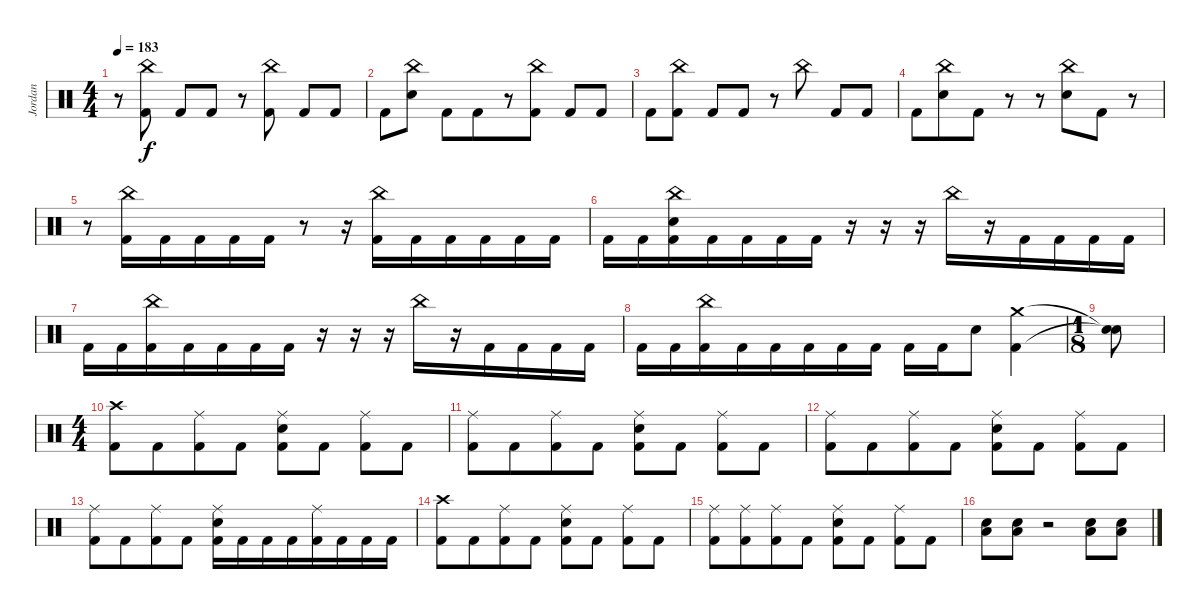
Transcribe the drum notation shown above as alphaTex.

\track ("Jordan" "Jordan") {instrument percussion bank 82}
\staff {score}
\articulation defaults
\ts (4 4)
\tempo 183
\clef neutral
\ks c
r.8{dy f} ("China (hit)" "Kick (hit) 2").8 "Kick (hit) 2".8{beam merge} "Kick (hit) 2".8 r.8{beam merge} ("China (hit)" "Kick (hit) 2").8 "Kick (hit) 2".8{beam merge} "Kick (hit) 2".8 |
"Kick (hit) 2".8 ("China (hit)" "Snare (hit) 2").8 "Kick (hit) 2".8 "Kick (hit) 2".8{beam merge} r.8 ("China (hit)" "Kick (hit) 2").8 "Kick (hit) 2".8{beam merge} "Kick (hit) 2".8 |
"Kick (hit) 2".8{beam merge} ("China (hit)" "Kick (hit) 2").8 "Kick (hit) 2".8{beam merge} "Kick (hit) 2".8 r.8{beam merge} "China (hit)".8 "Kick (hit) 2".8{beam merge} "Kick (hit) 2".8 |
"Kick (hit) 2".8 ("China (hit)" "Snare (hit) 2").8{beam merge} "Kick (hit) 2".8 r.8 r.8 ("China (hit)" "Snare (hit) 2").8{beam merge} "Kick (hit) 2".8 r.8 |
r.8 ("China (hit)" "Kick (hit) 2").16 "Kick (hit) 2".16{beam merge} "Kick (hit) 2".16{beam merge} "Kick (hit) 2".16{beam merge} "Kick (hit) 2".16 r.8 r.16{beam merge} ("China (hit)" "Kick (hit) 2").16{beam merge} "Kick (hit) 2".16{beam merge} "Kick (hit) 2".16{beam merge} "Kick (hit) 2".16 "Kick (hit) 2".16 "Kick (hit) 2".16 |
"Kick (hit) 2".16{beam merge} "Kick (hit) 2".16 ("China (hit)" "Snare (hit) 2" "Kick (hit) 2").16 "Kick (hit) 2".16{beam merge} "Kick (hit) 2".16{beam merge} "Kick (hit) 2".16{beam merge} "Kick (hit) 2".16 r.16 r.16 r.16{beam merge} "China (hit)".16{beam merge} r.16{beam merge} "Kick (hit) 2".16{beam merge} "Kick (hit) 2".16{beam merge} "Kick (hit) 2".16 "Kick (hit) 2".16 |
"Kick (hit) 2".16{beam merge} "Kick (hit) 2".16 ("China (hit)" "Kick (hit) 2").16 "Kick (hit) 2".16{beam merge} "Kick (hit) 2".16{beam merge} "Kick (hit) 2".16{beam merge} "Kick (hit) 2".16 r.16 r.16 r.16{beam merge} "China (hit)".16{beam merge} r.16{beam merge} "Kick (hit) 2".16{beam merge} "Kick (hit) 2".16{beam merge} "Kick (hit) 2".16 "Kick (hit) 2".16 |
"Kick (hit) 2".16{beam merge} "Kick (hit) 2".16 ("China (hit)" "Kick (hit) 2").16 "Kick (hit) 2".16{beam merge} "Kick (hit) 2".16{beam merge} "Kick (hit) 2".16{beam merge} "Kick (hit) 2".16{beam merge} "Kick (hit) 2".16 "Kick (hit) 2".16 "Kick (hit) 2".16 "Snare (hit) 2".8{beam merge} ("Crash medium (hit)" "Kick (hit) 2").4 |
\ts (1 8)
("Snare (hit)"{t} "Snare (hit)"{t}).8 |
\ts (4 4)
("Crash high (hit)" "Kick (hit) 2").8{beam merge} "Kick (hit) 2".8{beam merge} ("Ride (middle)" "Kick (hit) 2").8{beam merge} "Kick (hit) 2".8 ("Ride (middle)" "Snare (hit) 2" "Kick (hit) 2").8 "Kick (hit) 2".8 ("Ride (middle)" "Kick (hit) 2").8 "Kick (hit) 2".8 |
("Ride (middle)" "Kick (hit) 2").8{beam merge} "Kick (hit) 2".8{beam merge} ("Ride (middle)" "Kick (hit) 2").8{beam merge} "Kick (hit) 2".8 ("Ride (middle)" "Snare (hit) 2" "Kick (hit) 2").8 "Kick (hit) 2".8 ("Ride (middle)" "Kick (hit) 2").8 "Kick (hit) 2".8 |
("Ride (middle)" "Kick (hit) 2").8{beam merge} "Kick (hit) 2".8{beam merge} ("Ride (middle)" "Kick (hit) 2").8{beam merge} "Kick (hit) 2".8 ("Ride (middle)" "Snare (hit) 2" "Kick (hit) 2").8 "Kick (hit) 2".8 ("Ride (middle)" "Kick (hit) 2").8 "Kick (hit) 2".8 |
("Ride (middle)" "Kick (hit) 2").8{beam merge} "Kick (hit) 2".8{beam merge} ("Ride (middle)" "Kick (hit) 2").8{beam merge} "Kick (hit) 2".8 ("Ride (middle)" "Snare (hit) 2" "Kick (hit) 2").16 "Kick (hit) 2".16{beam merge} "Kick (hit) 2".16 "Kick (hit) 2".16{beam merge} ("Ride (middle)" "Kick (hit) 2").16 "Kick (hit) 2".16{beam merge} "Kick (hit) 2".16{beam merge} "Kick (hit) 2".16 |
("Crash high (hit)" "Kick (hit) 2").8{beam merge} "Kick (hit) 2".8{beam merge} ("Ride (middle)" "Kick (hit) 2").8{beam merge} "Kick (hit) 2".8 ("Ride (middle)" "Snare (hit) 2" "Kick (hit) 2").8 "Kick (hit) 2".8 ("Ride (middle)" "Kick (hit) 2").8 "Kick (hit) 2".8 |
("Ride (middle)" "Kick (hit) 2").8{beam merge} ("Ride (middle)" "Kick (hit) 2").8{beam merge} ("Ride (middle)" "Kick (hit) 2").8{beam merge} "Kick (hit) 2".8 ("Ride (middle)" "Snare (hit) 2" "Kick (hit) 2").8 "Kick (hit) 2".8 ("Ride (middle)" "Kick (hit) 2").8 "Kick (hit) 2".8 |
("Snare (hit) 2" "Low Tom (hit)").8 ("Snare (hit) 2" "Low Tom (hit)").8 r.2{beam merge} ("Snare (hit) 2" "Low Tom (hit)").8 ("Snare (hit) 2" "Low Tom (hit)").8
